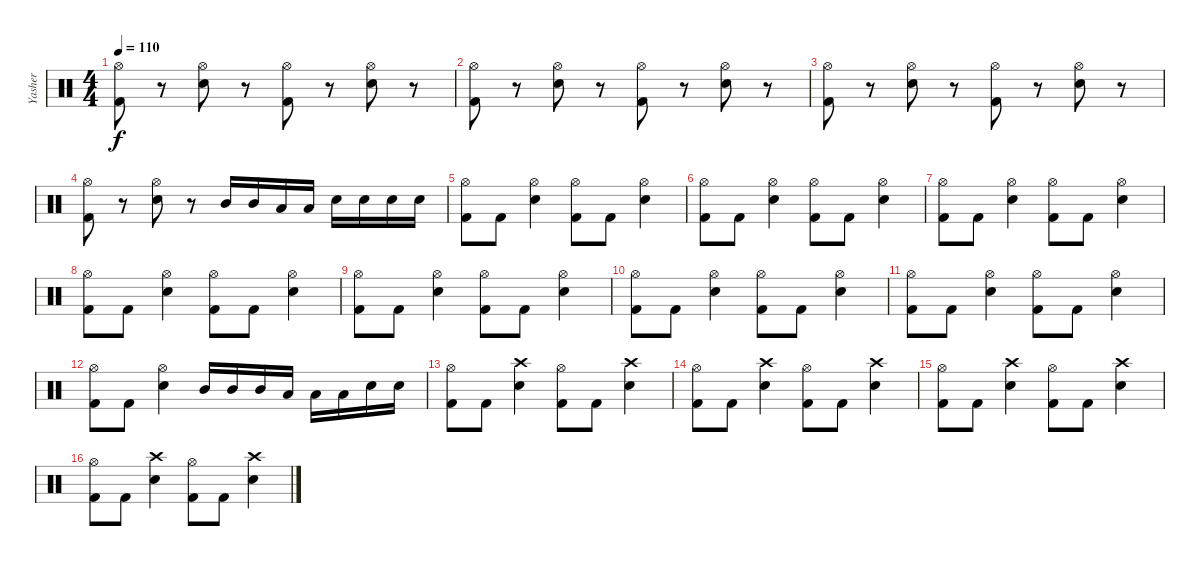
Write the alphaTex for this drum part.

\track ("Yasher" "Yasher") {instrument percussion}
\staff {score}
\articulation defaults
\ts (4 4)
\tempo 110
\clef neutral
\ks c
("Hi-Hat (open)" "Kick (hit) 2").8{dy f} r.8 ("Hi-Hat (open)" "Electric Snare (hit)").8 r.8 ("Hi-Hat (open)" "Kick (hit) 2").8 r.8 ("Hi-Hat (open)" "Electric Snare (hit)").8 r.8 |
("Hi-Hat (open)" "Kick (hit) 2").8 r.8 ("Hi-Hat (open)" "Electric Snare (hit)").8 r.8 ("Hi-Hat (open)" "Kick (hit) 2").8 r.8 ("Hi-Hat (open)" "Electric Snare (hit)").8 r.8 |
("Hi-Hat (open)" "Kick (hit) 2").8 r.8 ("Hi-Hat (open)" "Electric Snare (hit)").8 r.8 ("Hi-Hat (open)" "Kick (hit) 2").8 r.8 ("Hi-Hat (open)" "Electric Snare (hit)").8 r.8 |
("Hi-Hat (open)" "Kick (hit) 2").8 r.8 ("Hi-Hat (open)" "Electric Snare (hit)").8 r.8 "Mid Tom (hit)".16 "Mid Tom (hit)".16 "Low Tom (hit)".16 "Low Tom (hit)".16 "Electric Snare (hit)".16 "Electric Snare (hit)".16 "Electric Snare (hit)".16 "Electric Snare (hit)".16 |
("Hi-Hat (open)" "Kick (hit) 2").8 "Kick (hit) 2".8 ("Hi-Hat (open)" "Electric Snare (hit)").4 ("Hi-Hat (open)" "Kick (hit) 2").8 "Kick (hit) 2".8 ("Hi-Hat (open)" "Electric Snare (hit)").4 |
("Hi-Hat (open)" "Kick (hit) 2").8 "Kick (hit) 2".8 ("Hi-Hat (open)" "Electric Snare (hit)").4 ("Hi-Hat (open)" "Kick (hit) 2").8 "Kick (hit) 2".8 ("Hi-Hat (open)" "Electric Snare (hit)").4 |
("Hi-Hat (open)" "Kick (hit) 2").8 "Kick (hit) 2".8 ("Hi-Hat (open)" "Electric Snare (hit)").4 ("Hi-Hat (open)" "Kick (hit) 2").8 "Kick (hit) 2".8 ("Hi-Hat (open)" "Electric Snare (hit)").4 |
("Hi-Hat (open)" "Kick (hit) 2").8 "Kick (hit) 2".8 ("Hi-Hat (open)" "Electric Snare (hit)").4 ("Hi-Hat (open)" "Kick (hit) 2").8 "Kick (hit) 2".8 ("Hi-Hat (open)" "Electric Snare (hit)").4 |
("Hi-Hat (open)" "Kick (hit) 2").8 "Kick (hit) 2".8 ("Hi-Hat (open)" "Electric Snare (hit)").4 ("Hi-Hat (open)" "Kick (hit) 2").8 "Kick (hit) 2".8 ("Hi-Hat (open)" "Electric Snare (hit)").4 |
("Hi-Hat (open)" "Kick (hit) 2").8 "Kick (hit) 2".8 ("Hi-Hat (open)" "Electric Snare (hit)").4 ("Hi-Hat (open)" "Kick (hit) 2").8 "Kick (hit) 2".8 ("Hi-Hat (open)" "Electric Snare (hit)").4 |
("Hi-Hat (open)" "Kick (hit) 2").8 "Kick (hit) 2".8 ("Hi-Hat (open)" "Electric Snare (hit)").4 ("Hi-Hat (open)" "Kick (hit) 2").8 "Kick (hit) 2".8 ("Hi-Hat (open)" "Electric Snare (hit)").4 |
("Hi-Hat (open)" "Kick (hit) 2").8 "Kick (hit) 2".8 ("Hi-Hat (open)" "Electric Snare (hit)").4 "Mid Tom (hit)".16 "Mid Tom (hit)".16 "Mid Tom (hit)".16 "Low Tom (hit)".16 "Low Tom (hit)".16 "Low Tom (hit)".16 "Electric Snare (hit)".16 "Electric Snare (hit)".16 |
("Hi-Hat (open)" "Kick (hit) 2").8 "Kick (hit) 2".8 ("Electric Snare (hit)" "Crash high (hit)").4 ("Hi-Hat (open)" "Kick (hit) 2").8 "Kick (hit) 2".8 ("Electric Snare (hit)" "Crash high (hit)").4 |
("Hi-Hat (open)" "Kick (hit) 2").8 "Kick (hit) 2".8 ("Electric Snare (hit)" "Crash high (hit)").4 ("Hi-Hat (open)" "Kick (hit) 2").8 "Kick (hit) 2".8 ("Electric Snare (hit)" "Crash high (hit)").4 |
("Hi-Hat (open)" "Kick (hit) 2").8 "Kick (hit) 2".8 ("Electric Snare (hit)" "Crash high (hit)").4 ("Hi-Hat (open)" "Kick (hit) 2").8 "Kick (hit) 2".8 ("Electric Snare (hit)" "Crash high (hit)").4 |
("Hi-Hat (open)" "Kick (hit) 2").8 "Kick (hit) 2".8 ("Electric Snare (hit)" "Crash high (hit)").4 ("Hi-Hat (open)" "Kick (hit) 2").8 "Kick (hit) 2".8 ("Electric Snare (hit)" "Crash high (hit)").4
